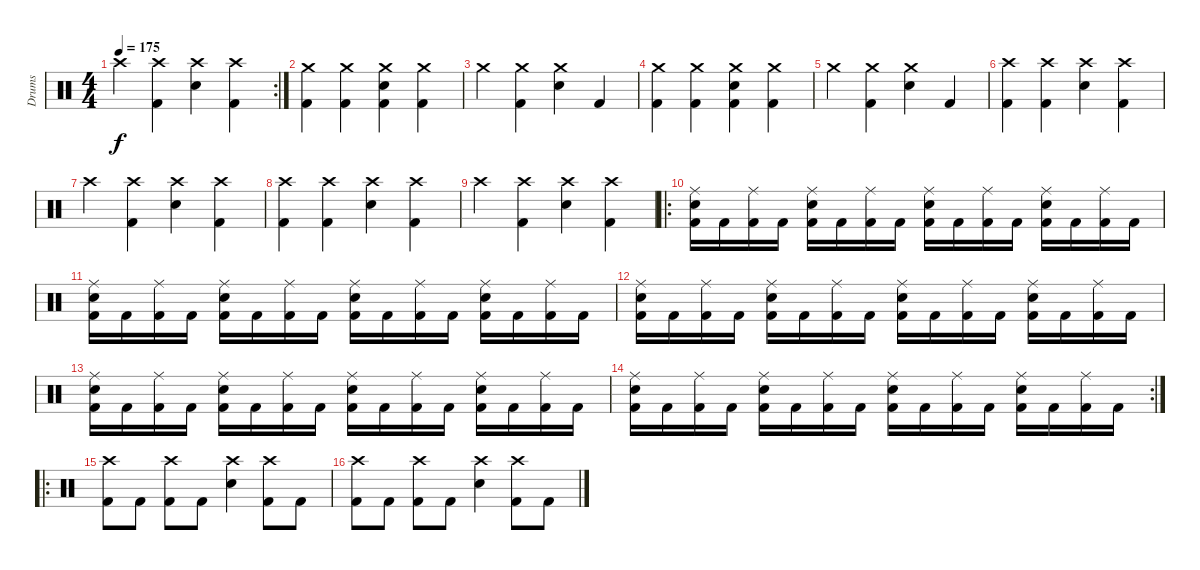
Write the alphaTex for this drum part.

\track ("Drums" "Drums") {instrument percussion}
\staff {score}
\articulation defaults
\rc 2
\ts (4 4)
\tempo 175
\clef neutral
\ks c "Crash high (hit)".4{dy f}
("Crash high (hit)" "Kick (hit) 2").4 ("Crash high (hit)" "Snare (hit) 2").4 ("Crash high (hit)" "Kick (hit) 2").4 |
("Crash medium (hit)" "Kick (hit) 2").4 ("Crash medium (hit)" "Kick (hit) 2").4 ("Crash medium (hit)" "Snare (hit) 2" "Kick (hit) 2").4 ("Crash medium (hit)" "Kick (hit) 2").4 |
"Crash medium (hit)".4 ("Crash medium (hit)" "Kick (hit) 2").4 ("Crash medium (hit)" "Snare (hit) 2").4 "Kick (hit) 2".4 |
("Crash medium (hit)" "Kick (hit) 2").4 ("Crash medium (hit)" "Kick (hit) 2").4 ("Crash medium (hit)" "Snare (hit) 2" "Kick (hit) 2").4 ("Crash medium (hit)" "Kick (hit) 2").4 |
"Crash medium (hit)".4 ("Crash medium (hit)" "Kick (hit) 2").4 ("Crash medium (hit)" "Snare (hit) 2").4 "Kick (hit) 2".4 |
("Crash high (hit)" "Kick (hit) 2").4 ("Crash high (hit)" "Kick (hit) 2").4 ("Crash high (hit)" "Snare (hit) 2").4 ("Crash high (hit)" "Kick (hit) 2").4 |
"Crash high (hit)".4 ("Crash high (hit)" "Kick (hit) 2").4 ("Crash high (hit)" "Snare (hit) 2").4 ("Crash high (hit)" "Kick (hit) 2").4 |
("Crash high (hit)" "Kick (hit) 2").4 ("Crash high (hit)" "Kick (hit) 2").4 ("Crash high (hit)" "Snare (hit) 2").4 ("Crash high (hit)" "Kick (hit) 2").4 |
"Crash high (hit)".4 ("Crash high (hit)" "Kick (hit) 2").4 ("Crash high (hit)" "Snare (hit) 2").4 ("Crash high (hit)" "Kick (hit) 2").4 |
\ro
("Ride (middle)" "Snare (hit) 2" "Kick (hit) 2").16 "Kick (hit) 2".16 ("Ride (middle)" "Kick (hit) 2").16 "Kick (hit) 2".16 ("Ride (middle)" "Snare (hit) 2" "Kick (hit) 2").16 "Kick (hit) 2".16 ("Ride (middle)" "Kick (hit) 2").16 "Kick (hit) 2".16 ("Ride (middle)" "Snare (hit) 2" "Kick (hit) 2").16 "Kick (hit) 2".16 ("Ride (middle)" "Kick (hit) 2").16 "Kick (hit) 2".16 ("Ride (middle)" "Snare (hit) 2" "Kick (hit) 2").16 "Kick (hit) 2".16 ("Ride (middle)" "Kick (hit) 2").16 "Kick (hit) 2".16 |
("Ride (middle)" "Snare (hit) 2" "Kick (hit) 2").16 "Kick (hit) 2".16 ("Ride (middle)" "Kick (hit) 2").16 "Kick (hit) 2".16 ("Ride (middle)" "Snare (hit) 2" "Kick (hit) 2").16 "Kick (hit) 2".16 ("Ride (middle)" "Kick (hit) 2").16 "Kick (hit) 2".16 ("Ride (middle)" "Snare (hit) 2" "Kick (hit) 2").16 "Kick (hit) 2".16 ("Ride (middle)" "Kick (hit) 2").16 "Kick (hit) 2".16 ("Ride (middle)" "Snare (hit) 2" "Kick (hit) 2").16 "Kick (hit) 2".16 ("Ride (middle)" "Kick (hit) 2").16 "Kick (hit) 2".16 |
("Ride (middle)" "Snare (hit) 2" "Kick (hit) 2").16 "Kick (hit) 2".16 ("Ride (middle)" "Kick (hit) 2").16 "Kick (hit) 2".16 ("Ride (middle)" "Snare (hit) 2" "Kick (hit) 2").16 "Kick (hit) 2".16 ("Ride (middle)" "Kick (hit) 2").16 "Kick (hit) 2".16 ("Ride (middle)" "Snare (hit) 2" "Kick (hit) 2").16 "Kick (hit) 2".16 ("Ride (middle)" "Kick (hit) 2").16 "Kick (hit) 2".16 ("Ride (middle)" "Snare (hit) 2" "Kick (hit) 2").16 "Kick (hit) 2".16 ("Ride (middle)" "Kick (hit) 2").16 "Kick (hit) 2".16 |
("Ride (middle)" "Snare (hit) 2" "Kick (hit) 2").16 "Kick (hit) 2".16 ("Ride (middle)" "Kick (hit) 2").16 "Kick (hit) 2".16 ("Ride (middle)" "Snare (hit) 2" "Kick (hit) 2").16 "Kick (hit) 2".16 ("Ride (middle)" "Kick (hit) 2").16 "Kick (hit) 2".16 ("Ride (middle)" "Snare (hit) 2" "Kick (hit) 2").16 "Kick (hit) 2".16 ("Ride (middle)" "Kick (hit) 2").16 "Kick (hit) 2".16 ("Ride (middle)" "Snare (hit) 2" "Kick (hit) 2").16 "Kick (hit) 2".16 ("Ride (middle)" "Kick (hit) 2").16 "Kick (hit) 2".16 |
\rc 2
("Ride (middle)" "Snare (hit) 2" "Kick (hit) 2").16 "Kick (hit) 2".16 ("Ride (middle)" "Kick (hit) 2").16 "Kick (hit) 2".16 ("Ride (middle)" "Snare (hit) 2" "Kick (hit) 2").16 "Kick (hit) 2".16 ("Ride (middle)" "Kick (hit) 2").16 "Kick (hit) 2".16 ("Ride (middle)" "Snare (hit) 2" "Kick (hit) 2").16 "Kick (hit) 2".16 ("Ride (middle)" "Kick (hit) 2").16 "Kick (hit) 2".16 ("Ride (middle)" "Snare (hit) 2" "Kick (hit) 2").16 "Kick (hit) 2".16 ("Ride (middle)" "Kick (hit) 2").16 "Kick (hit) 2".16 |
\ro
("Crash high (hit)" "Kick (hit) 2").8 "Kick (hit) 2".8 ("Crash high (hit)" "Kick (hit) 2").8 "Kick (hit) 2".8 ("Crash high (hit)" "Snare (hit) 2").4 ("Crash high (hit)" "Kick (hit) 2").8 "Kick (hit) 2".8 |
("Crash high (hit)" "Kick (hit) 2").8 "Kick (hit) 2".8 ("Crash high (hit)" "Kick (hit) 2").8 "Kick (hit) 2".8 ("Crash high (hit)" "Snare (hit) 2").4 ("Crash high (hit)" "Kick (hit) 2").8 "Kick (hit) 2".8
